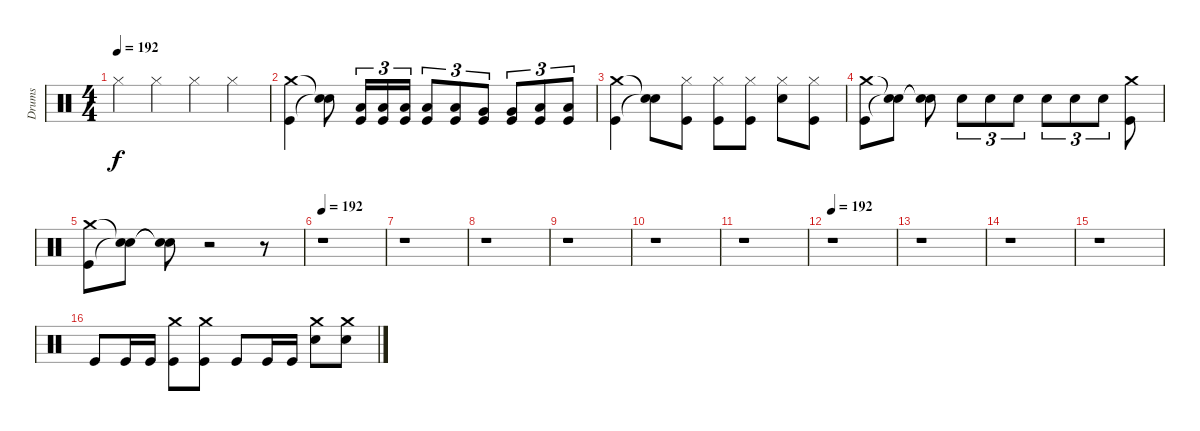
\track ("Drums" "Drums") {instrument percussion}
\staff {score}
\articulation defaults
\ts (4 4)
\tempo 192
\tempo 135
\tempo 192
\clef neutral
\ks c "Hi-Hat (closed)".4{dy f} "Hi-Hat (closed)".4 "Hi-Hat (closed)".4 "Hi-Hat (closed)".4
|
("Crash medium (hit)" "Kick (hit)").4 ("Snare (hit)"{t} "Snare (hit)"{t}).8 ("Low Tom (hit)" "Kick (hit)").16{tu (3 2)} ("Low Tom (hit)" "Kick (hit)").16{tu (3 2)} ("Low Tom (hit)" "Kick (hit)").16{tu (3 2)} ("Low Tom (hit)" "Kick (hit)").8{tu (3 2)} ("Low Tom (hit)" "Kick (hit)").8{tu (3 2)} ("Very Low Tom (hit)" "Kick (hit)").8{tu (3 2)} ("Very Low Tom (hit)" "Kick (hit)").8{tu (3 2)} ("Low Floor Tom (hit)" "Kick (hit)").8{tu (3 2)} ("Low Floor Tom (hit)" "Kick (hit)").8{tu (3 2)} |
("Crash medium (hit)" "Kick (hit)").4 ("Snare (hit)"{t} "Snare (hit)"{t}).8 ("Hi-Hat (closed)" "Kick (hit)").8 ("Hi-Hat (closed)" "Kick (hit)").8 ("Hi-Hat (closed)" "Kick (hit)").8 ("Hi-Hat (closed)" "Electric Snare (hit)").8 ("Hi-Hat (closed)" "Kick (hit)").8 |
("Crash medium (hit)" "Kick (hit)").8 ("Snare (hit)"{t} "Snare (hit)"{t}).8 ("Snare (hit)"{t} "Snare (hit)"{t}).8 "Electric Snare (hit)".8{tu (3 2)} "Electric Snare (hit)".8{tu (3 2)} "Electric Snare (hit)".8{tu (3 2)} "Electric Snare (hit)".8{tu (3 2)} "Electric Snare (hit)".8{tu (3 2)} "Electric Snare (hit)".8{tu (3 2)} ("Crash medium (hit)" "Kick (hit)").8 |
("Crash medium (hit)" "Kick (hit)").8 ("Snare (hit)"{t} "Snare (hit)"{t}).8 ("Snare (hit)"{t} "Snare (hit)"{t}).8 r.2 r.8 |
\tempo 192
r.1 |
r.1 |
r.1 |
r.1 |
r.1 |
r.1 |
\tempo 192
r.1 |
r.1 |
r.1 |
r.1 |
"Kick (hit)".8 "Kick (hit)".16 "Kick (hit)".16 ("Crash medium (hit)" "Kick (hit)").8 ("Crash medium (hit)" "Kick (hit)").8 "Kick (hit)".8 "Kick (hit)".16 "Kick (hit)".16 ("Crash medium (hit)" "Electric Snare (hit)").8 ("Crash medium (hit)" "Electric Snare (hit)").8
